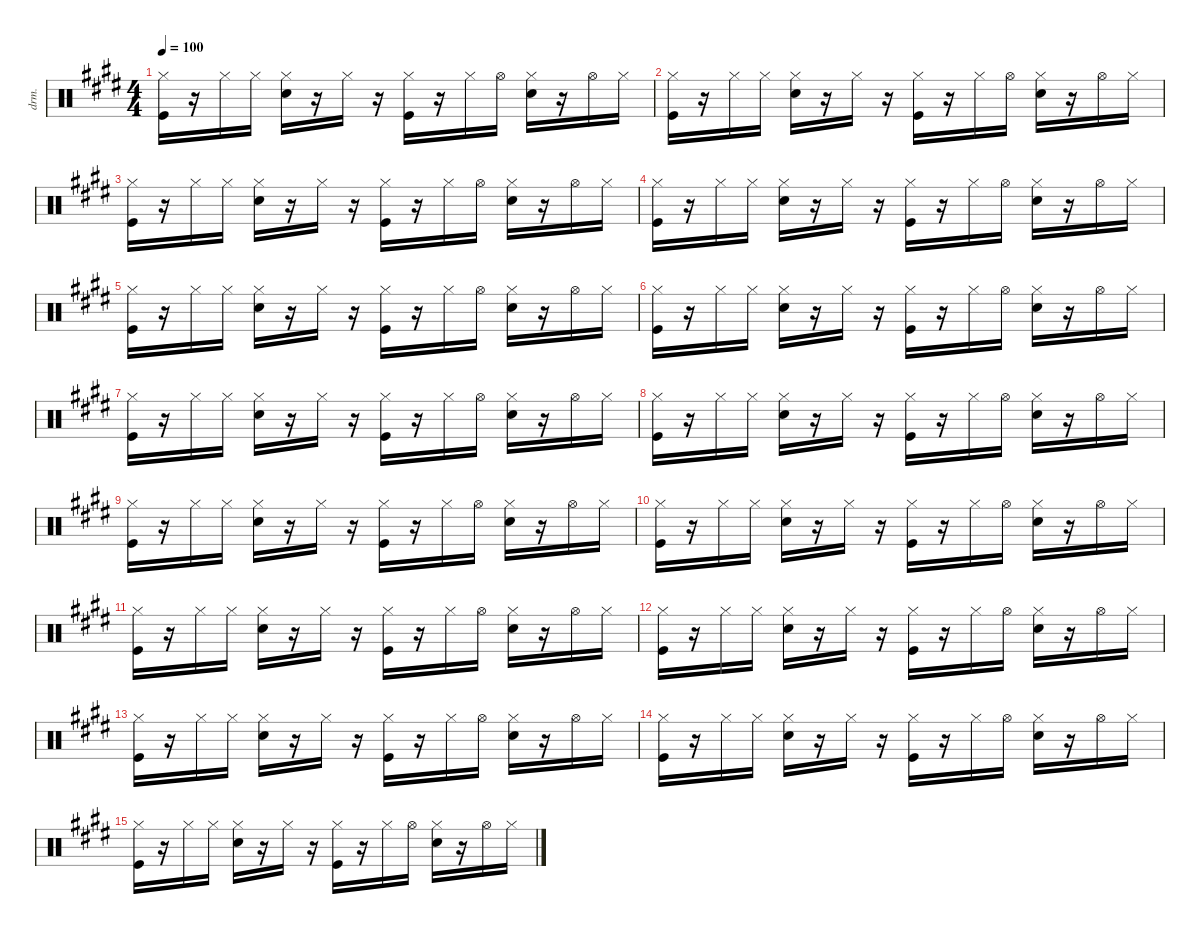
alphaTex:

\defaultSystemsLayout 4
\hideDynamics
\bracketExtendMode nobrackets
\otherSystemsTrackNameOrientation horizontal
\track ("Drums" "drm.") {instrument percussion}
\staff {score}
\articulation defaults
\ts (4 4)
\tempo 100
\clef neutral
\ks e
("Hi-Hat (closed)"{acc forcenatural} "Kick (hit)"{acc forcenatural}).16{dy f beam Down} r.16{beam Down} "Hi-Hat (closed)"{acc forcenatural}.16{beam Down} "Hi-Hat (closed)"{acc forcenatural}.16{beam Down} ("Hi-Hat (closed)"{acc forcenatural} "Snare (hit) 2"{acc forcenatural}).16{beam Down} r.16{beam Down} "Hi-Hat (closed)"{acc forcenatural}.16{beam Down} r.16{beam Down} ("Hi-Hat (closed)"{acc forcenatural} "Kick (hit)"{acc forcenatural}).16{beam Down} r.16{beam Down} "Hi-Hat (closed)"{acc forcenatural}.16{beam Down} "Hi-Hat (open)"{acc forcenatural}.16{beam Down} ("Hi-Hat (closed)"{acc forcenatural} "Snare (hit) 2"{acc forcenatural}).16{beam Down} r.16{beam Down} "Hi-Hat (open)"{acc forcenatural}.16{beam Down} "Hi-Hat (closed)"{acc forcenatural}.16{beam Down} |
("Hi-Hat (closed)"{acc forcenatural} "Kick (hit)"{acc forcenatural}).16{beam Down} r.16{beam Down} "Hi-Hat (closed)"{acc forcenatural}.16{beam Down} "Hi-Hat (closed)"{acc forcenatural}.16{beam Down} ("Hi-Hat (closed)"{acc forcenatural} "Snare (hit) 2"{acc forcenatural}).16{beam Down} r.16{beam Down} "Hi-Hat (closed)"{acc forcenatural}.16{beam Down} r.16{beam Down} ("Hi-Hat (closed)"{acc forcenatural} "Kick (hit)"{acc forcenatural}).16{beam Down} r.16{beam Down} "Hi-Hat (closed)"{acc forcenatural}.16{beam Down} "Hi-Hat (open)"{acc forcenatural}.16{beam Down} ("Hi-Hat (closed)"{acc forcenatural} "Snare (hit) 2"{acc forcenatural}).16{beam Down} r.16{beam Down} "Hi-Hat (open)"{acc forcenatural}.16{beam Down} "Hi-Hat (closed)"{acc forcenatural}.16{beam Down} |
("Hi-Hat (closed)"{acc forcenatural} "Kick (hit)"{acc forcenatural}).16{beam Down} r.16{beam Down} "Hi-Hat (closed)"{acc forcenatural}.16{beam Down} "Hi-Hat (closed)"{acc forcenatural}.16{beam Down} ("Hi-Hat (closed)"{acc forcenatural} "Snare (hit) 2"{acc forcenatural}).16{beam Down} r.16{beam Down} "Hi-Hat (closed)"{acc forcenatural}.16{beam Down} r.16{beam Down} ("Hi-Hat (closed)"{acc forcenatural} "Kick (hit)"{acc forcenatural}).16{beam Down} r.16{beam Down} "Hi-Hat (closed)"{acc forcenatural}.16{beam Down} "Hi-Hat (open)"{acc forcenatural}.16{beam Down} ("Hi-Hat (closed)"{acc forcenatural} "Snare (hit) 2"{acc forcenatural}).16{beam Down} r.16{beam Down} "Hi-Hat (open)"{acc forcenatural}.16{beam Down} "Hi-Hat (closed)"{acc forcenatural}.16{beam Down} |
("Hi-Hat (closed)"{acc forcenatural} "Kick (hit)"{acc forcenatural}).16{beam Down} r.16{beam Down} "Hi-Hat (closed)"{acc forcenatural}.16{beam Down} "Hi-Hat (closed)"{acc forcenatural}.16{beam Down} ("Hi-Hat (closed)"{acc forcenatural} "Snare (hit) 2"{acc forcenatural}).16{beam Down} r.16{beam Down} "Hi-Hat (closed)"{acc forcenatural}.16{beam Down} r.16{beam Down} ("Hi-Hat (closed)"{acc forcenatural} "Kick (hit)"{acc forcenatural}).16{beam Down} r.16{beam Down} "Hi-Hat (closed)"{acc forcenatural}.16{beam Down} "Hi-Hat (open)"{acc forcenatural}.16{beam Down} ("Hi-Hat (closed)"{acc forcenatural} "Snare (hit) 2"{acc forcenatural}).16{beam Down} r.16{beam Down} "Hi-Hat (open)"{acc forcenatural}.16{beam Down} "Hi-Hat (closed)"{acc forcenatural}.16{beam Down} |
("Hi-Hat (closed)"{acc forcenatural} "Kick (hit)"{acc forcenatural}).16{beam Down} r.16{beam Down} "Hi-Hat (closed)"{acc forcenatural}.16{beam Down} "Hi-Hat (closed)"{acc forcenatural}.16{beam Down} ("Hi-Hat (closed)"{acc forcenatural} "Snare (hit) 2"{acc forcenatural}).16{beam Down} r.16{beam Down} "Hi-Hat (closed)"{acc forcenatural}.16{beam Down} r.16{beam Down} ("Hi-Hat (closed)"{acc forcenatural} "Kick (hit)"{acc forcenatural}).16{beam Down} r.16{beam Down} "Hi-Hat (closed)"{acc forcenatural}.16{beam Down} "Hi-Hat (open)"{acc forcenatural}.16{beam Down} ("Hi-Hat (closed)"{acc forcenatural} "Snare (hit) 2"{acc forcenatural}).16{beam Down} r.16{beam Down} "Hi-Hat (open)"{acc forcenatural}.16{beam Down} "Hi-Hat (closed)"{acc forcenatural}.16{beam Down} |
("Hi-Hat (closed)"{acc forcenatural} "Kick (hit)"{acc forcenatural}).16{beam Down} r.16{beam Down} "Hi-Hat (closed)"{acc forcenatural}.16{beam Down} "Hi-Hat (closed)"{acc forcenatural}.16{beam Down} ("Hi-Hat (closed)"{acc forcenatural} "Snare (hit) 2"{acc forcenatural}).16{beam Down} r.16{beam Down} "Hi-Hat (closed)"{acc forcenatural}.16{beam Down} r.16{beam Down} ("Hi-Hat (closed)"{acc forcenatural} "Kick (hit)"{acc forcenatural}).16{beam Down} r.16{beam Down} "Hi-Hat (closed)"{acc forcenatural}.16{beam Down} "Hi-Hat (open)"{acc forcenatural}.16{beam Down} ("Hi-Hat (closed)"{acc forcenatural} "Snare (hit) 2"{acc forcenatural}).16{beam Down} r.16{beam Down} "Hi-Hat (open)"{acc forcenatural}.16{beam Down} "Hi-Hat (closed)"{acc forcenatural}.16{beam Down} |
("Hi-Hat (closed)"{acc forcenatural} "Kick (hit)"{acc forcenatural}).16{beam Down} r.16{beam Down} "Hi-Hat (closed)"{acc forcenatural}.16{beam Down} "Hi-Hat (closed)"{acc forcenatural}.16{beam Down} ("Hi-Hat (closed)"{acc forcenatural} "Snare (hit) 2"{acc forcenatural}).16{beam Down} r.16{beam Down} "Hi-Hat (closed)"{acc forcenatural}.16{beam Down} r.16{beam Down} ("Hi-Hat (closed)"{acc forcenatural} "Kick (hit)"{acc forcenatural}).16{beam Down} r.16{beam Down} "Hi-Hat (closed)"{acc forcenatural}.16{beam Down} "Hi-Hat (open)"{acc forcenatural}.16{beam Down} ("Hi-Hat (closed)"{acc forcenatural} "Snare (hit) 2"{acc forcenatural}).16{beam Down} r.16{beam Down} "Hi-Hat (open)"{acc forcenatural}.16{beam Down} "Hi-Hat (closed)"{acc forcenatural}.16{beam Down} |
("Hi-Hat (closed)"{acc forcenatural} "Kick (hit)"{acc forcenatural}).16{beam Down} r.16{beam Down} "Hi-Hat (closed)"{acc forcenatural}.16{beam Down} "Hi-Hat (closed)"{acc forcenatural}.16{beam Down} ("Hi-Hat (closed)"{acc forcenatural} "Snare (hit) 2"{acc forcenatural}).16{beam Down} r.16{beam Down} "Hi-Hat (closed)"{acc forcenatural}.16{beam Down} r.16{beam Down} ("Hi-Hat (closed)"{acc forcenatural} "Kick (hit)"{acc forcenatural}).16{beam Down} r.16{beam Down} "Hi-Hat (closed)"{acc forcenatural}.16{beam Down} "Hi-Hat (open)"{acc forcenatural}.16{beam Down} ("Hi-Hat (closed)"{acc forcenatural} "Snare (hit) 2"{acc forcenatural}).16{beam Down} r.16{beam Down} "Hi-Hat (open)"{acc forcenatural}.16{beam Down} "Hi-Hat (closed)"{acc forcenatural}.16{beam Down} |
("Hi-Hat (closed)"{acc forcenatural} "Kick (hit)"{acc forcenatural}).16{beam Down} r.16{beam Down} "Hi-Hat (closed)"{acc forcenatural}.16{beam Down} "Hi-Hat (closed)"{acc forcenatural}.16{beam Down} ("Hi-Hat (closed)"{acc forcenatural} "Snare (hit) 2"{acc forcenatural}).16{beam Down} r.16{beam Down} "Hi-Hat (closed)"{acc forcenatural}.16{beam Down} r.16{beam Down} ("Hi-Hat (closed)"{acc forcenatural} "Kick (hit)"{acc forcenatural}).16{beam Down} r.16{beam Down} "Hi-Hat (closed)"{acc forcenatural}.16{beam Down} "Hi-Hat (open)"{acc forcenatural}.16{beam Down} ("Hi-Hat (closed)"{acc forcenatural} "Snare (hit) 2"{acc forcenatural}).16{beam Down} r.16{beam Down} "Hi-Hat (open)"{acc forcenatural}.16{beam Down} "Hi-Hat (closed)"{acc forcenatural}.16{beam Down} |
("Hi-Hat (closed)"{acc forcenatural} "Kick (hit)"{acc forcenatural}).16{beam Down} r.16{beam Down} "Hi-Hat (closed)"{acc forcenatural}.16{beam Down} "Hi-Hat (closed)"{acc forcenatural}.16{beam Down} ("Hi-Hat (closed)"{acc forcenatural} "Snare (hit) 2"{acc forcenatural}).16{beam Down} r.16{beam Down} "Hi-Hat (closed)"{acc forcenatural}.16{beam Down} r.16{beam Down} ("Hi-Hat (closed)"{acc forcenatural} "Kick (hit)"{acc forcenatural}).16{beam Down} r.16{beam Down} "Hi-Hat (closed)"{acc forcenatural}.16{beam Down} "Hi-Hat (open)"{acc forcenatural}.16{beam Down} ("Hi-Hat (closed)"{acc forcenatural} "Snare (hit) 2"{acc forcenatural}).16{beam Down} r.16{beam Down} "Hi-Hat (open)"{acc forcenatural}.16{beam Down} "Hi-Hat (closed)"{acc forcenatural}.16{beam Down} |
("Hi-Hat (closed)"{acc forcenatural} "Kick (hit)"{acc forcenatural}).16{beam Down} r.16{beam Down} "Hi-Hat (closed)"{acc forcenatural}.16{beam Down} "Hi-Hat (closed)"{acc forcenatural}.16{beam Down} ("Hi-Hat (closed)"{acc forcenatural} "Snare (hit) 2"{acc forcenatural}).16{beam Down} r.16{beam Down} "Hi-Hat (closed)"{acc forcenatural}.16{beam Down} r.16{beam Down} ("Hi-Hat (closed)"{acc forcenatural} "Kick (hit)"{acc forcenatural}).16{beam Down} r.16{beam Down} "Hi-Hat (closed)"{acc forcenatural}.16{beam Down} "Hi-Hat (open)"{acc forcenatural}.16{beam Down} ("Hi-Hat (closed)"{acc forcenatural} "Snare (hit) 2"{acc forcenatural}).16{beam Down} r.16{beam Down} "Hi-Hat (open)"{acc forcenatural}.16{beam Down} "Hi-Hat (closed)"{acc forcenatural}.16{beam Down} |
("Hi-Hat (closed)"{acc forcenatural} "Kick (hit)"{acc forcenatural}).16{beam Down} r.16{beam Down} "Hi-Hat (closed)"{acc forcenatural}.16{beam Down} "Hi-Hat (closed)"{acc forcenatural}.16{beam Down} ("Hi-Hat (closed)"{acc forcenatural} "Snare (hit) 2"{acc forcenatural}).16{beam Down} r.16{beam Down} "Hi-Hat (closed)"{acc forcenatural}.16{beam Down} r.16{beam Down} ("Hi-Hat (closed)"{acc forcenatural} "Kick (hit)"{acc forcenatural}).16{beam Down} r.16{beam Down} "Hi-Hat (closed)"{acc forcenatural}.16{beam Down} "Hi-Hat (open)"{acc forcenatural}.16{beam Down} ("Hi-Hat (closed)"{acc forcenatural} "Snare (hit) 2"{acc forcenatural}).16{beam Down} r.16{beam Down} "Hi-Hat (open)"{acc forcenatural}.16{beam Down} "Hi-Hat (closed)"{acc forcenatural}.16{beam Down} |
("Hi-Hat (closed)"{acc forcenatural} "Kick (hit)"{acc forcenatural}).16{beam Down} r.16{beam Down} "Hi-Hat (closed)"{acc forcenatural}.16{beam Down} "Hi-Hat (closed)"{acc forcenatural}.16{beam Down} ("Hi-Hat (closed)"{acc forcenatural} "Snare (hit) 2"{acc forcenatural}).16{beam Down} r.16{beam Down} "Hi-Hat (closed)"{acc forcenatural}.16{beam Down} r.16{beam Down} ("Hi-Hat (closed)"{acc forcenatural} "Kick (hit)"{acc forcenatural}).16{beam Down} r.16{beam Down} "Hi-Hat (closed)"{acc forcenatural}.16{beam Down} "Hi-Hat (open)"{acc forcenatural}.16{beam Down} ("Hi-Hat (closed)"{acc forcenatural} "Snare (hit) 2"{acc forcenatural}).16{beam Down} r.16{beam Down} "Hi-Hat (open)"{acc forcenatural}.16{beam Down} "Hi-Hat (closed)"{acc forcenatural}.16{beam Down} |
("Hi-Hat (closed)"{acc forcenatural} "Kick (hit)"{acc forcenatural}).16{beam Down} r.16{beam Down} "Hi-Hat (closed)"{acc forcenatural}.16{beam Down} "Hi-Hat (closed)"{acc forcenatural}.16{beam Down} ("Hi-Hat (closed)"{acc forcenatural} "Snare (hit) 2"{acc forcenatural}).16{beam Down} r.16{beam Down} "Hi-Hat (closed)"{acc forcenatural}.16{beam Down} r.16{beam Down} ("Hi-Hat (closed)"{acc forcenatural} "Kick (hit)"{acc forcenatural}).16{beam Down} r.16{beam Down} "Hi-Hat (closed)"{acc forcenatural}.16{beam Down} "Hi-Hat (open)"{acc forcenatural}.16{beam Down} ("Hi-Hat (closed)"{acc forcenatural} "Snare (hit) 2"{acc forcenatural}).16{beam Down} r.16{beam Down} "Hi-Hat (open)"{acc forcenatural}.16{beam Down} "Hi-Hat (closed)"{acc forcenatural}.16{beam Down} |
("Hi-Hat (closed)"{acc forcenatural} "Kick (hit)"{acc forcenatural}).16{beam Down} r.16{beam Down} "Hi-Hat (closed)"{acc forcenatural}.16{beam Down} "Hi-Hat (closed)"{acc forcenatural}.16{beam Down} ("Hi-Hat (closed)"{acc forcenatural} "Snare (hit) 2"{acc forcenatural}).16{beam Down} r.16{beam Down} "Hi-Hat (closed)"{acc forcenatural}.16{beam Down} r.16{beam Down} ("Hi-Hat (closed)"{acc forcenatural} "Kick (hit)"{acc forcenatural}).16{beam Down} r.16{beam Down} "Hi-Hat (closed)"{acc forcenatural}.16{beam Down} "Hi-Hat (open)"{acc forcenatural}.16{beam Down} ("Hi-Hat (closed)"{acc forcenatural} "Snare (hit) 2"{acc forcenatural}).16{beam Down} r.16{beam Down} "Hi-Hat (open)"{acc forcenatural}.16{beam Down} "Hi-Hat (closed)"{acc forcenatural}.16{beam Down}
